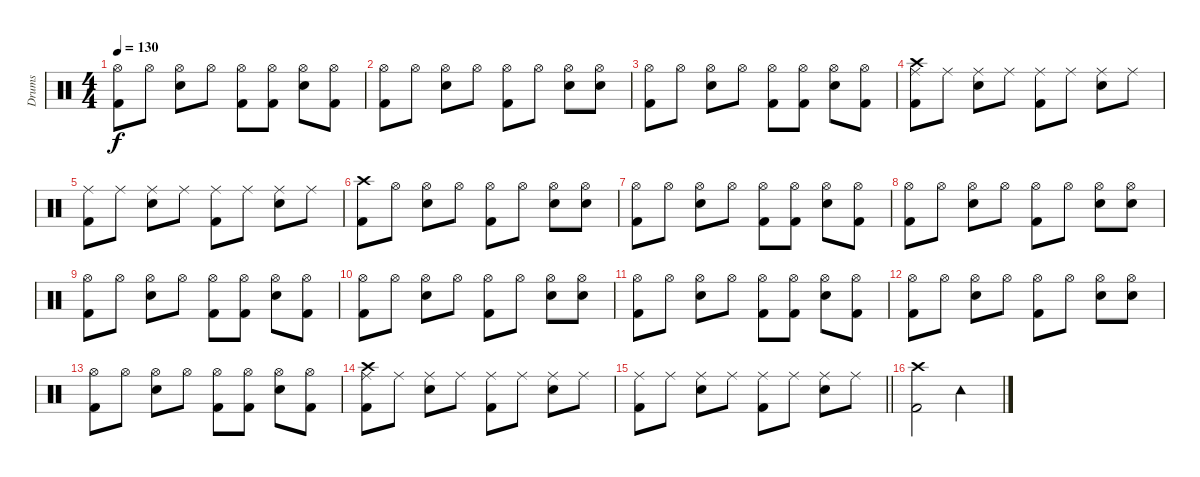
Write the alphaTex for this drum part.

\track ("Drums" "Drums") {instrument percussion}
\staff {score}
\articulation defaults
\ts (4 4)
\tempo 130
\clef neutral
\ks c
("Hi-Hat (open)" "Kick (hit) 2").8{dy f} "Hi-Hat (open)".8 ("Hi-Hat (open)" "Electric Snare (hit)").8 "Hi-Hat (open)".8 ("Hi-Hat (open)" "Kick (hit) 2").8 ("Hi-Hat (open)" "Kick (hit) 2").8 ("Hi-Hat (open)" "Electric Snare (hit)").8 ("Hi-Hat (open)" "Kick (hit) 2").8 |
("Hi-Hat (open)" "Kick (hit) 2").8 "Hi-Hat (open)".8 ("Hi-Hat (open)" "Electric Snare (hit)").8 "Hi-Hat (open)".8 ("Hi-Hat (open)" "Kick (hit) 2").8 "Hi-Hat (open)".8 ("Hi-Hat (open)" "Electric Snare (hit)").8 ("Hi-Hat (open)" "Electric Snare (hit)").8 |
("Hi-Hat (open)" "Kick (hit) 2").8 "Hi-Hat (open)".8 ("Hi-Hat (open)" "Electric Snare (hit)").8 "Hi-Hat (open)".8 ("Hi-Hat (open)" "Kick (hit) 2").8 ("Hi-Hat (open)" "Kick (hit) 2").8 ("Hi-Hat (open)" "Electric Snare (hit)").8 ("Hi-Hat (open)" "Kick (hit) 2").8 |
("Crash high (hit)" "Ride (middle)" "Kick (hit) 2").8 "Ride (middle)".8 ("Ride (middle)" "Electric Snare (hit)").8 "Ride (middle)".8 ("Ride (middle)" "Kick (hit) 2").8 "Ride (middle)".8 ("Ride (middle)" "Electric Snare (hit)").8 "Ride (middle)".8 |
("Ride (middle)" "Kick (hit) 2").8 "Ride (middle)".8 ("Ride (middle)" "Electric Snare (hit)").8 "Ride (middle)".8 ("Ride (middle)" "Kick (hit) 2").8 "Ride (middle)".8 ("Ride (middle)" "Electric Snare (hit)").8 "Ride (middle)".8 |
("Crash high (hit)" "Kick (hit) 2").8 "Hi-Hat (open)".8 ("Hi-Hat (open)" "Electric Snare (hit)").8 "Hi-Hat (open)".8 ("Hi-Hat (open)" "Kick (hit) 2").8 "Hi-Hat (open)".8 ("Hi-Hat (open)" "Electric Snare (hit)").8 ("Hi-Hat (open)" "Electric Snare (hit)").8 |
("Hi-Hat (open)" "Kick (hit) 2").8 "Hi-Hat (open)".8 ("Hi-Hat (open)" "Electric Snare (hit)").8 "Hi-Hat (open)".8 ("Hi-Hat (open)" "Kick (hit) 2").8 ("Hi-Hat (open)" "Kick (hit) 2").8 ("Hi-Hat (open)" "Electric Snare (hit)").8 ("Hi-Hat (open)" "Kick (hit) 2").8 |
("Hi-Hat (open)" "Kick (hit) 2").8 "Hi-Hat (open)".8 ("Hi-Hat (open)" "Electric Snare (hit)").8 "Hi-Hat (open)".8 ("Hi-Hat (open)" "Kick (hit) 2").8 "Hi-Hat (open)".8 ("Hi-Hat (open)" "Electric Snare (hit)").8 ("Hi-Hat (open)" "Electric Snare (hit)").8 |
("Hi-Hat (open)" "Kick (hit) 2").8 "Hi-Hat (open)".8 ("Hi-Hat (open)" "Electric Snare (hit)").8 "Hi-Hat (open)".8 ("Hi-Hat (open)" "Kick (hit) 2").8 ("Hi-Hat (open)" "Kick (hit) 2").8 ("Hi-Hat (open)" "Electric Snare (hit)").8 ("Hi-Hat (open)" "Kick (hit) 2").8 |
("Hi-Hat (open)" "Kick (hit) 2").8 "Hi-Hat (open)".8 ("Hi-Hat (open)" "Electric Snare (hit)").8 "Hi-Hat (open)".8 ("Hi-Hat (open)" "Kick (hit) 2").8 "Hi-Hat (open)".8 ("Hi-Hat (open)" "Electric Snare (hit)").8 ("Hi-Hat (open)" "Electric Snare (hit)").8 |
("Hi-Hat (open)" "Kick (hit) 2").8 "Hi-Hat (open)".8 ("Hi-Hat (open)" "Electric Snare (hit)").8 "Hi-Hat (open)".8 ("Hi-Hat (open)" "Kick (hit) 2").8 ("Hi-Hat (open)" "Kick (hit) 2").8 ("Hi-Hat (open)" "Electric Snare (hit)").8 ("Hi-Hat (open)" "Kick (hit) 2").8 |
("Hi-Hat (open)" "Kick (hit) 2").8 "Hi-Hat (open)".8 ("Hi-Hat (open)" "Electric Snare (hit)").8 "Hi-Hat (open)".8 ("Hi-Hat (open)" "Kick (hit) 2").8 "Hi-Hat (open)".8 ("Hi-Hat (open)" "Electric Snare (hit)").8 ("Hi-Hat (open)" "Electric Snare (hit)").8 |
("Hi-Hat (open)" "Kick (hit) 2").8 "Hi-Hat (open)".8 ("Hi-Hat (open)" "Electric Snare (hit)").8 "Hi-Hat (open)".8 ("Hi-Hat (open)" "Kick (hit) 2").8 ("Hi-Hat (open)" "Kick (hit) 2").8 ("Hi-Hat (open)" "Electric Snare (hit)").8 ("Hi-Hat (open)" "Kick (hit) 2").8 |
("Crash high (hit)" "Ride (middle)" "Kick (hit) 2").8 "Ride (middle)".8 ("Ride (middle)" "Electric Snare (hit)").8 "Ride (middle)".8 ("Ride (middle)" "Kick (hit) 2").8 "Ride (middle)".8 ("Ride (middle)" "Electric Snare (hit)").8 "Ride (middle)".8 |
\barLineRight lightlight
("Ride (middle)" "Kick (hit) 2").8 "Ride (middle)".8 ("Ride (middle)" "Electric Snare (hit)").8 "Ride (middle)".8 ("Ride (middle)" "Kick (hit) 2").8 "Ride (middle)".8 ("Ride (middle)" "Electric Snare (hit)").8 "Ride (middle)".8 |
("Crash high (hit)" "Kick (hit) 2").2 "Tambourine (hit)".2
